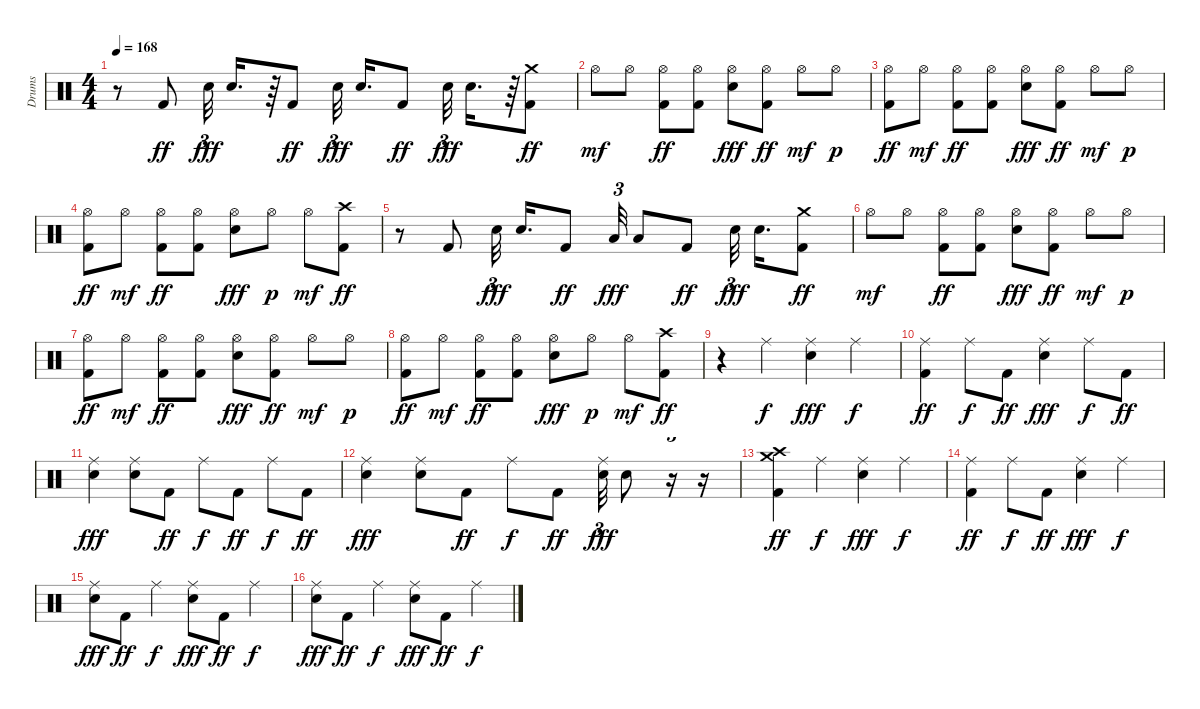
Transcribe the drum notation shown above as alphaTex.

\track ("Drums" "Drums") {instrument percussion}
\staff {score}
\articulation defaults
\ts (4 4)
\tempo 168
\clef neutral
\ks c
r.8{dy ff} "Kick (hit) 2".8 "Snare (hit) 2".32{tu (3 2) dy fff} "Snare (hit) 2".16{d} r.64 "Kick (hit) 2".8{dy ff} "Snare (hit) 2".32{tu (3 2) dy fff} "Snare (hit) 2".16{d} "Kick (hit) 2".8{dy ff} "Snare (hit) 2".32{tu (3 2) dy fff} "Snare (hit) 2".16{d} r.64 ("Kick (hit) 2" "Crash medium (hit)").8{dy ff} |
"Hi-Hat (open)".8{dy mf} "Hi-Hat (open)".8 ("Hi-Hat (open)" "Kick (hit) 2").8{dy ff} ("Hi-Hat (open)" "Kick (hit) 2").8 ("Hi-Hat (open)" "Snare (hit) 2").8{dy fff} ("Hi-Hat (open)" "Kick (hit) 2").8{dy ff} "Hi-Hat (open)".8{dy mf} "Hi-Hat (open)".8{dy p} |
("Hi-Hat (open)" "Kick (hit) 2").8{dy ff} "Hi-Hat (open)".8{dy mf} ("Hi-Hat (open)" "Kick (hit) 2").8{dy ff} ("Hi-Hat (open)" "Kick (hit) 2").8 ("Hi-Hat (open)" "Snare (hit) 2").8{dy fff} ("Hi-Hat (open)" "Kick (hit) 2").8{dy ff} "Hi-Hat (open)".8{dy mf} "Hi-Hat (open)".8{dy p} |
("Hi-Hat (open)" "Kick (hit) 2").8{dy ff} "Hi-Hat (open)".8{dy mf} ("Hi-Hat (open)" "Kick (hit) 2").8{dy ff} ("Hi-Hat (open)" "Kick (hit) 2").8 ("Hi-Hat (open)" "Snare (hit) 2").8{dy fff} "Hi-Hat (open)".8{dy p} "Hi-Hat (open)".8{dy mf} ("Kick (hit) 2" "Crash high (hit)").8{dy ff} |
r.8 "Kick (hit) 2".8 "Snare (hit) 2".32{tu (3 2) dy fff} "Snare (hit) 2".16{d} "Kick (hit) 2".8{dy ff} "Low Tom (hit)".32{tu (3 2) dy fff} "Low Tom (hit)".8 "Kick (hit) 2".8{dy ff} "Snare (hit) 2".32{tu (3 2) dy fff} "Snare (hit) 2".16{d} ("Kick (hit) 2" "Crash medium (hit)").8{dy ff} |
"Hi-Hat (open)".8{dy mf} "Hi-Hat (open)".8 ("Hi-Hat (open)" "Kick (hit) 2").8{dy ff} ("Hi-Hat (open)" "Kick (hit) 2").8 ("Hi-Hat (open)" "Snare (hit) 2").8{dy fff} ("Hi-Hat (open)" "Kick (hit) 2").8{dy ff} "Hi-Hat (open)".8{dy mf} "Hi-Hat (open)".8{dy p} |
("Hi-Hat (open)" "Kick (hit) 2").8{dy ff} "Hi-Hat (open)".8{dy mf} ("Hi-Hat (open)" "Kick (hit) 2").8{dy ff} ("Hi-Hat (open)" "Kick (hit) 2").8 ("Hi-Hat (open)" "Snare (hit) 2").8{dy fff} ("Hi-Hat (open)" "Kick (hit) 2").8{dy ff} "Hi-Hat (open)".8{dy mf} "Hi-Hat (open)".8{dy p} |
("Hi-Hat (open)" "Kick (hit) 2").8{dy ff} "Hi-Hat (open)".8{dy mf} ("Hi-Hat (open)" "Kick (hit) 2").8{dy ff} ("Hi-Hat (open)" "Kick (hit) 2").8 ("Hi-Hat (open)" "Snare (hit) 2").8{dy fff} "Hi-Hat (open)".8{dy p} "Hi-Hat (open)".8{dy mf} ("Kick (hit) 2" "Crash high (hit)").8{dy ff} |
r.4 "Ride (middle)".4{dy f} ("Snare (hit) 2" "Ride (middle)").4{dy fff} "Ride (middle)".4{dy f} |
("Kick (hit) 2" "Ride (middle)").4{dy ff} "Ride (middle)".8{dy f} "Kick (hit) 2".8{dy ff} ("Snare (hit) 2" "Ride (middle)").4{dy fff} "Ride (middle)".8{dy f} "Kick (hit) 2".8{dy ff} |
("Snare (hit) 2" "Ride (middle)").4{dy fff} ("Snare (hit) 2" "Ride (middle)").8 "Kick (hit) 2".8{dy ff} "Ride (middle)".8{dy f} "Kick (hit) 2".8{dy ff} "Ride (middle)".8{dy f} "Kick (hit) 2".8{dy ff} |
("Snare (hit) 2" "Ride (middle)").4{dy fff} ("Snare (hit) 2" "Ride (middle)").8 "Kick (hit) 2".8{dy ff} "Ride (middle)".8{dy f} "Kick (hit) 2".8{dy ff} ("Snare (hit) 2" "Ride (middle)").32{tu (3 2) dy fff} "Snare (hit) 2".8 r.16{tu (3 2)} r.16 |
("Kick (hit) 2" "Crash medium (hit)" "Crash high (hit)").4{dy ff} "Ride (middle)".4{dy f} ("Snare (hit) 2" "Ride (middle)").4{dy fff} "Ride (middle)".4{dy f} |
("Kick (hit) 2" "Ride (middle)").4{dy ff} "Ride (middle)".8{dy f} "Kick (hit) 2".8{dy ff} ("Snare (hit) 2" "Ride (middle)").4{dy fff} "Ride (middle)".4{dy f} |
("Snare (hit) 2" "Ride (middle)").8{dy fff} "Kick (hit) 2".8{dy ff} "Ride (middle)".4{dy f} ("Snare (hit) 2" "Ride (middle)").8{dy fff} "Kick (hit) 2".8{dy ff} "Ride (middle)".4{dy f} |
("Snare (hit) 2" "Ride (middle)").8{dy fff} "Kick (hit) 2".8{dy ff} "Ride (middle)".4{dy f} ("Snare (hit) 2" "Ride (middle)").8{dy fff} "Kick (hit) 2".8{dy ff} "Ride (middle)".4{dy f}
